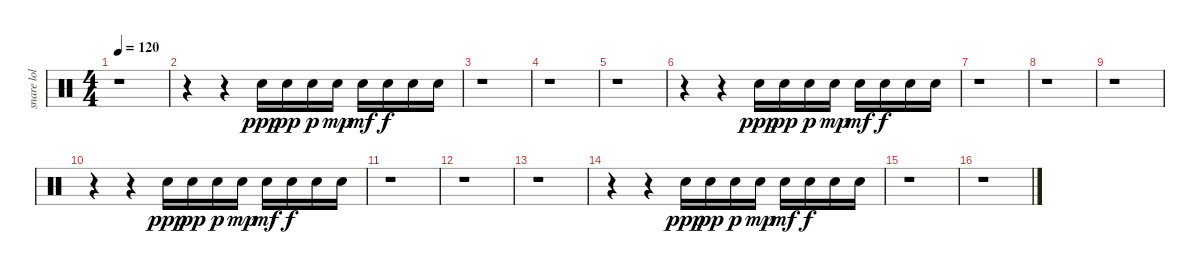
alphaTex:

\track ("snare lol lazy" "snare lol ") {instrument percussion}
\staff {score}
\articulation defaults
\ts (4 4)
\tempo 120
\clef neutral
\ks c
r.1{dy f} |
r.4 r.4 "Snare (hit) 2".16{dy ppp} "Snare (hit) 2".16{dy pp} "Snare (hit) 2".16{dy p} "Snare (hit) 2".16{dy mp} "Snare (hit) 2".16{dy mf} "Snare (hit) 2".16{dy f} "Snare (hit) 2".16 "Snare (hit) 2".16 |
r.1 |
r.1 |
r.1 |
r.4 r.4 "Snare (hit) 2".16{dy ppp} "Snare (hit) 2".16{dy pp} "Snare (hit) 2".16{dy p} "Snare (hit) 2".16{dy mp} "Snare (hit) 2".16{dy mf} "Snare (hit) 2".16{dy f} "Snare (hit) 2".16 "Snare (hit) 2".16 |
r.1 |
r.1 |
r.1 |
r.4 r.4 "Snare (hit) 2".16{dy ppp} "Snare (hit) 2".16{dy pp} "Snare (hit) 2".16{dy p} "Snare (hit) 2".16{dy mp} "Snare (hit) 2".16{dy mf} "Snare (hit) 2".16{dy f} "Snare (hit) 2".16 "Snare (hit) 2".16 |
r.1 |
r.1 |
r.1 |
r.4 r.4 "Snare (hit) 2".16{dy ppp} "Snare (hit) 2".16{dy pp} "Snare (hit) 2".16{dy p} "Snare (hit) 2".16{dy mp} "Snare (hit) 2".16{dy mf} "Snare (hit) 2".16{dy f} "Snare (hit) 2".16 "Snare (hit) 2".16 |
r.1 |
r.1
